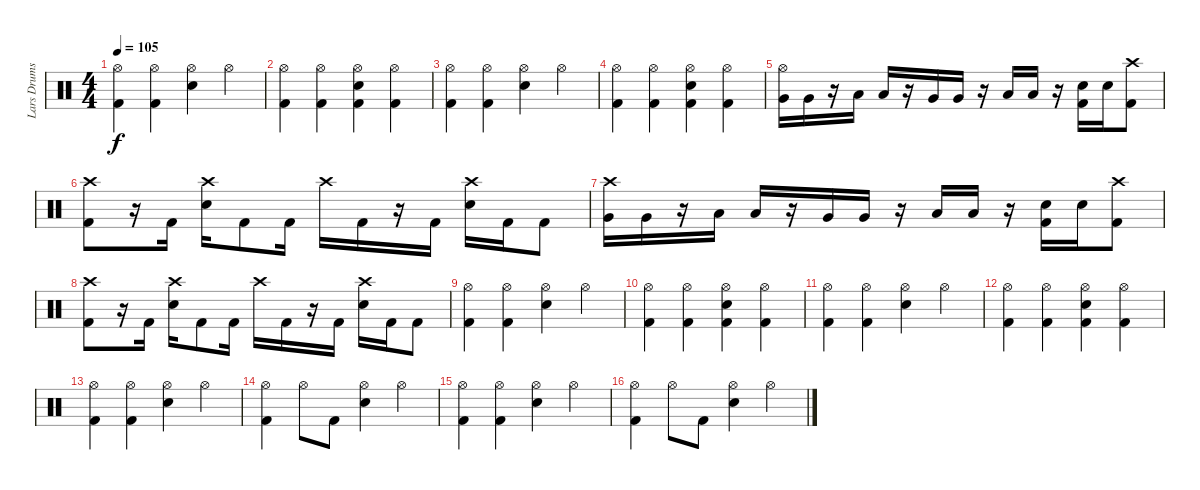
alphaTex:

\track ("Lars Drums" "Lars Drums") {instrument percussion}
\staff {score}
\articulation defaults
\ts (4 4)
\tempo 105
\clef neutral
\ks c
("Hi-Hat (open)" "Kick (hit) 2").4{dy f} ("Hi-Hat (open)" "Kick (hit) 2").4 ("Hi-Hat (open)" "Snare (hit) 2").4 "Hi-Hat (open)".4 |
("Hi-Hat (open)" "Kick (hit) 2").4 ("Hi-Hat (open)" "Kick (hit) 2").4 ("Hi-Hat (open)" "Kick (hit) 2" "Snare (hit) 2").4 ("Hi-Hat (open)" "Kick (hit) 2").4 |
("Hi-Hat (open)" "Kick (hit) 2").4 ("Hi-Hat (open)" "Kick (hit) 2").4 ("Hi-Hat (open)" "Snare (hit) 2").4 "Hi-Hat (open)".4 |
("Hi-Hat (open)" "Kick (hit) 2").4 ("Hi-Hat (open)" "Kick (hit) 2").4 ("Hi-Hat (open)" "Kick (hit) 2" "Snare (hit) 2").4 ("Hi-Hat (open)" "Kick (hit) 2").4 |
("Hi-Hat (open)" "Very Low Tom (hit)").16 "Very Low Tom (hit)".16 r.16 "Low Floor Tom (hit)".16 "Low Floor Tom (hit)".16 r.16 "Very Low Tom (hit)".16 "Very Low Tom (hit)".16 r.16 "Low Floor Tom (hit)".16 "Low Floor Tom (hit)".16 r.16 ("Kick (hit) 2" "Snare (hit) 2").16 "Snare (hit) 2".16 ("Crash high (hit)" "Kick (hit) 2").8 |
("Crash high (hit)" "Kick (hit) 2").8 r.16 "Kick (hit) 2".16 ("Crash high (hit)" "Snare (hit) 2").16 "Kick (hit) 2".8 "Kick (hit) 2".16 "Crash high (hit)".16 "Kick (hit) 2".16 r.16 "Kick (hit) 2".16 ("Crash high (hit)" "Snare (hit) 2").16 "Kick (hit) 2".16 "Kick (hit) 2".8 |
("Crash high (hit)" "Very Low Tom (hit)").16 "Very Low Tom (hit)".16 r.16 "Low Floor Tom (hit)".16 "Low Floor Tom (hit)".16 r.16 "Very Low Tom (hit)".16 "Very Low Tom (hit)".16 r.16 "Low Floor Tom (hit)".16 "Low Floor Tom (hit)".16 r.16 ("Kick (hit) 2" "Snare (hit) 2").16 "Snare (hit) 2".16 ("Crash high (hit)" "Kick (hit) 2").8 |
("Crash high (hit)" "Kick (hit) 2").8 r.16 "Kick (hit) 2".16 ("Crash high (hit)" "Snare (hit) 2").16 "Kick (hit) 2".8 "Kick (hit) 2".16 "Crash high (hit)".16 "Kick (hit) 2".16 r.16 "Kick (hit) 2".16 ("Crash high (hit)" "Snare (hit) 2").16 "Kick (hit) 2".16 "Kick (hit) 2".8 |
("Hi-Hat (open)" "Kick (hit) 2").4 ("Hi-Hat (open)" "Kick (hit) 2").4 ("Hi-Hat (open)" "Snare (hit) 2").4 "Hi-Hat (open)".4 |
("Hi-Hat (open)" "Kick (hit) 2").4 ("Hi-Hat (open)" "Kick (hit) 2").4 ("Hi-Hat (open)" "Kick (hit) 2" "Snare (hit) 2").4 ("Hi-Hat (open)" "Kick (hit) 2").4 |
("Hi-Hat (open)" "Kick (hit) 2").4 ("Hi-Hat (open)" "Kick (hit) 2").4 ("Hi-Hat (open)" "Snare (hit) 2").4 "Hi-Hat (open)".4 |
("Hi-Hat (open)" "Kick (hit) 2").4 ("Hi-Hat (open)" "Kick (hit) 2").4 ("Hi-Hat (open)" "Kick (hit) 2" "Snare (hit) 2").4 ("Hi-Hat (open)" "Kick (hit) 2").4 |
("Hi-Hat (open)" "Kick (hit) 2").4 ("Hi-Hat (open)" "Kick (hit) 2").4 ("Hi-Hat (open)" "Snare (hit) 2").4 "Hi-Hat (open)".4 |
("Hi-Hat (open)" "Kick (hit) 2").4 "Hi-Hat (open)".8 "Kick (hit) 2".8 ("Hi-Hat (open)" "Snare (hit) 2").4 "Hi-Hat (open)".4 |
("Hi-Hat (open)" "Kick (hit) 2").4 ("Hi-Hat (open)" "Kick (hit) 2").4 ("Hi-Hat (open)" "Snare (hit) 2").4 "Hi-Hat (open)".4 |
("Hi-Hat (open)" "Kick (hit) 2").4 "Hi-Hat (open)".8 "Kick (hit) 2".8 ("Hi-Hat (open)" "Snare (hit) 2").4 "Hi-Hat (open)".4
